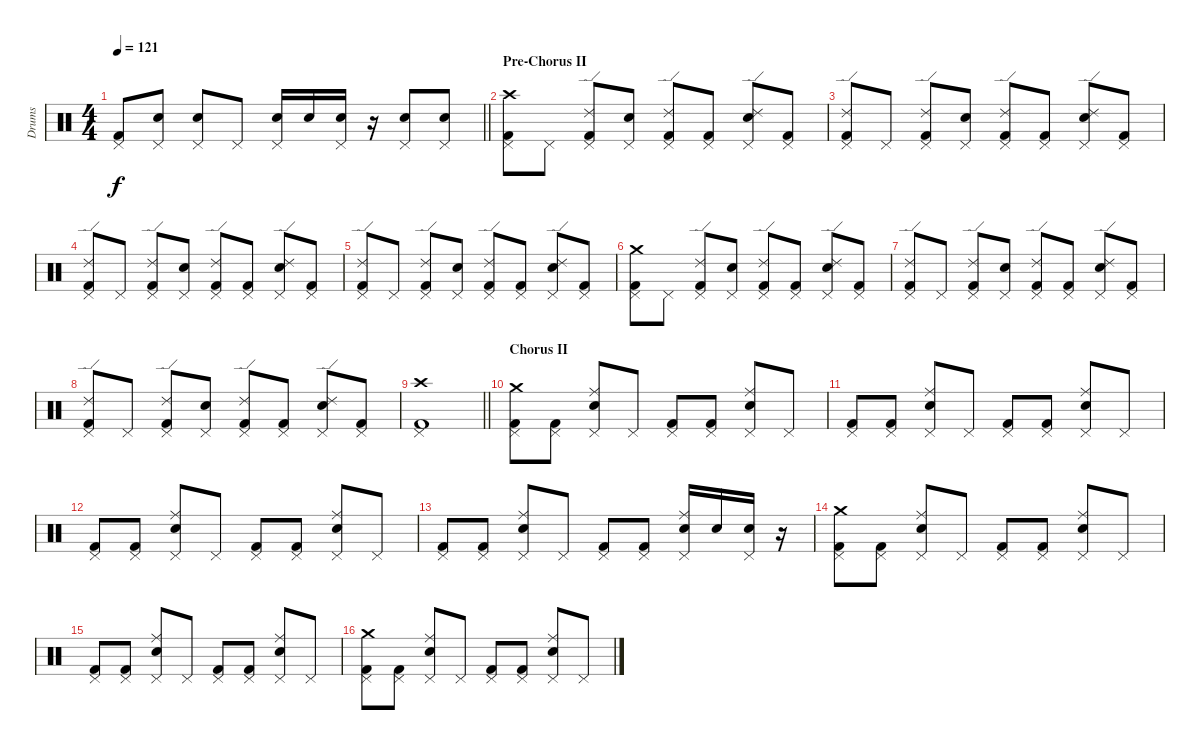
\track ("Drums" "Drums") {instrument percussion}
\staff {score}
\articulation defaults
\ts (4 4)
\tempo 121
\clef neutral
\barLineRight lightlight
\ks c
("Pedal Hi-Hat (hit)" "Kick (hit) 2").8{dy f} ("Pedal Hi-Hat (hit)" "Snare (hit) 2").8 ("Pedal Hi-Hat (hit)" "Snare (hit) 2").8 "Pedal Hi-Hat (hit)".8 ("Pedal Hi-Hat (hit)" "Snare (hit) 2").16 "Snare (hit) 2".16 ("Pedal Hi-Hat (hit)" "Snare (hit) 2").16 r.16 ("Pedal Hi-Hat (hit)" "Snare (hit) 2").8 ("Pedal Hi-Hat (hit)" "Snare (hit) 2").8 |
\section ("" "Pre-Chorus II")
("Pedal Hi-Hat (hit)" "Crash high (hit)" "Kick (hit) 2").8 "Pedal Hi-Hat (hit)".8 ("Pedal Hi-Hat (hit)" "Ride (edge) 2" "Kick (hit) 2").8 ("Pedal Hi-Hat (hit)" "Snare (hit) 2").8 ("Pedal Hi-Hat (hit)" "Ride (edge) 2" "Kick (hit) 2").8 ("Pedal Hi-Hat (hit)" "Kick (hit) 2").8 ("Pedal Hi-Hat (hit)" "Ride (edge) 2" "Snare (hit) 2").8 ("Pedal Hi-Hat (hit)" "Kick (hit) 2").8 |
("Pedal Hi-Hat (hit)" "Ride (edge) 2" "Kick (hit) 2").8 "Pedal Hi-Hat (hit)".8 ("Pedal Hi-Hat (hit)" "Ride (edge) 2" "Kick (hit) 2").8 ("Pedal Hi-Hat (hit)" "Snare (hit) 2").8 ("Pedal Hi-Hat (hit)" "Ride (edge) 2" "Kick (hit) 2").8 ("Pedal Hi-Hat (hit)" "Kick (hit) 2").8 ("Pedal Hi-Hat (hit)" "Ride (edge) 2" "Snare (hit) 2").8 ("Pedal Hi-Hat (hit)" "Kick (hit) 2").8 |
("Pedal Hi-Hat (hit)" "Ride (edge) 2" "Kick (hit) 2").8 "Pedal Hi-Hat (hit)".8 ("Pedal Hi-Hat (hit)" "Ride (edge) 2" "Kick (hit) 2").8 ("Pedal Hi-Hat (hit)" "Snare (hit) 2").8 ("Pedal Hi-Hat (hit)" "Ride (edge) 2" "Kick (hit) 2").8 ("Pedal Hi-Hat (hit)" "Kick (hit) 2").8 ("Pedal Hi-Hat (hit)" "Ride (edge) 2" "Snare (hit) 2").8 ("Pedal Hi-Hat (hit)" "Kick (hit) 2").8 |
("Pedal Hi-Hat (hit)" "Ride (edge) 2" "Kick (hit) 2").8 "Pedal Hi-Hat (hit)".8 ("Pedal Hi-Hat (hit)" "Ride (edge) 2" "Kick (hit) 2").8 ("Pedal Hi-Hat (hit)" "Snare (hit) 2").8 ("Pedal Hi-Hat (hit)" "Ride (edge) 2" "Kick (hit) 2").8 ("Pedal Hi-Hat (hit)" "Kick (hit) 2").8 ("Pedal Hi-Hat (hit)" "Ride (edge) 2" "Snare (hit) 2").8 ("Pedal Hi-Hat (hit)" "Kick (hit) 2").8 |
("Pedal Hi-Hat (hit)" "Crash medium (hit)" "Kick (hit) 2").8 "Pedal Hi-Hat (hit)".8 ("Pedal Hi-Hat (hit)" "Ride (edge) 2" "Kick (hit) 2").8 ("Pedal Hi-Hat (hit)" "Snare (hit) 2").8 ("Pedal Hi-Hat (hit)" "Ride (edge) 2" "Kick (hit) 2").8 ("Pedal Hi-Hat (hit)" "Kick (hit) 2").8 ("Pedal Hi-Hat (hit)" "Ride (edge) 2" "Snare (hit) 2").8 ("Pedal Hi-Hat (hit)" "Kick (hit) 2").8 |
("Pedal Hi-Hat (hit)" "Ride (edge) 2" "Kick (hit) 2").8 "Pedal Hi-Hat (hit)".8 ("Pedal Hi-Hat (hit)" "Ride (edge) 2" "Kick (hit) 2").8 ("Pedal Hi-Hat (hit)" "Snare (hit) 2").8 ("Pedal Hi-Hat (hit)" "Ride (edge) 2" "Kick (hit) 2").8 ("Pedal Hi-Hat (hit)" "Kick (hit) 2").8 ("Pedal Hi-Hat (hit)" "Ride (edge) 2" "Snare (hit) 2").8 ("Pedal Hi-Hat (hit)" "Kick (hit) 2").8 |
("Pedal Hi-Hat (hit)" "Ride (edge) 2" "Kick (hit) 2").8 "Pedal Hi-Hat (hit)".8 ("Pedal Hi-Hat (hit)" "Ride (edge) 2" "Kick (hit) 2").8 ("Pedal Hi-Hat (hit)" "Snare (hit) 2").8 ("Pedal Hi-Hat (hit)" "Ride (edge) 2" "Kick (hit) 2").8 ("Pedal Hi-Hat (hit)" "Kick (hit) 2").8 ("Pedal Hi-Hat (hit)" "Ride (edge) 2" "Snare (hit) 2").8 ("Pedal Hi-Hat (hit)" "Kick (hit) 2").8 |
\barLineRight lightlight
("Pedal Hi-Hat (hit)" "Crash high (hit)" "Kick (hit) 2").1 |
\section ("" "Chorus II")
("Pedal Hi-Hat (hit)" "Crash medium (hit)" "Kick (hit) 2").8 ("Pedal Hi-Hat (hit)" "Kick (hit) 2").8 ("Pedal Hi-Hat (hit)" "Ride (middle)" "Snare (hit) 2").8 "Pedal Hi-Hat (hit)".8 ("Pedal Hi-Hat (hit)" "Kick (hit) 2").8 ("Pedal Hi-Hat (hit)" "Kick (hit) 2").8 ("Pedal Hi-Hat (hit)" "Ride (middle)" "Snare (hit) 2").8 "Pedal Hi-Hat (hit)".8 |
("Pedal Hi-Hat (hit)" "Kick (hit) 2").8 ("Pedal Hi-Hat (hit)" "Kick (hit) 2").8 ("Pedal Hi-Hat (hit)" "Ride (middle)" "Snare (hit) 2").8 "Pedal Hi-Hat (hit)".8 ("Pedal Hi-Hat (hit)" "Kick (hit) 2").8 ("Pedal Hi-Hat (hit)" "Kick (hit) 2").8 ("Pedal Hi-Hat (hit)" "Ride (middle)" "Snare (hit) 2").8 "Pedal Hi-Hat (hit)".8 |
("Pedal Hi-Hat (hit)" "Kick (hit) 2").8 ("Pedal Hi-Hat (hit)" "Kick (hit) 2").8 ("Pedal Hi-Hat (hit)" "Ride (middle)" "Snare (hit) 2").8 "Pedal Hi-Hat (hit)".8 ("Pedal Hi-Hat (hit)" "Kick (hit) 2").8 ("Pedal Hi-Hat (hit)" "Kick (hit) 2").8 ("Pedal Hi-Hat (hit)" "Ride (middle)" "Snare (hit) 2").8 "Pedal Hi-Hat (hit)".8 |
("Pedal Hi-Hat (hit)" "Kick (hit) 2").8 ("Pedal Hi-Hat (hit)" "Kick (hit) 2").8 ("Pedal Hi-Hat (hit)" "Ride (middle)" "Snare (hit) 2").8 "Pedal Hi-Hat (hit)".8 ("Pedal Hi-Hat (hit)" "Kick (hit) 2").8 ("Pedal Hi-Hat (hit)" "Kick (hit) 2").8 ("Pedal Hi-Hat (hit)" "Ride (middle)" "Snare (hit) 2").16 "Snare (hit) 2".16 ("Pedal Hi-Hat (hit)" "Snare (hit) 2").16 r.16 |
("Pedal Hi-Hat (hit)" "Crash medium (hit)" "Kick (hit) 2").8 ("Pedal Hi-Hat (hit)" "Kick (hit) 2").8 ("Pedal Hi-Hat (hit)" "Ride (middle)" "Snare (hit) 2").8 "Pedal Hi-Hat (hit)".8 ("Pedal Hi-Hat (hit)" "Kick (hit) 2").8 ("Pedal Hi-Hat (hit)" "Kick (hit) 2").8 ("Pedal Hi-Hat (hit)" "Ride (middle)" "Snare (hit) 2").8 "Pedal Hi-Hat (hit)".8 |
("Pedal Hi-Hat (hit)" "Kick (hit) 2").8 ("Pedal Hi-Hat (hit)" "Kick (hit) 2").8 ("Pedal Hi-Hat (hit)" "Ride (middle)" "Snare (hit) 2").8 "Pedal Hi-Hat (hit)".8 ("Pedal Hi-Hat (hit)" "Kick (hit) 2").8 ("Pedal Hi-Hat (hit)" "Kick (hit) 2").8 ("Pedal Hi-Hat (hit)" "Ride (middle)" "Snare (hit) 2").8 "Pedal Hi-Hat (hit)".8 |
("Pedal Hi-Hat (hit)" "Crash medium (hit)" "Kick (hit) 2").8 ("Pedal Hi-Hat (hit)" "Kick (hit) 2").8 ("Pedal Hi-Hat (hit)" "Ride (middle)" "Snare (hit) 2").8 "Pedal Hi-Hat (hit)".8 ("Pedal Hi-Hat (hit)" "Kick (hit) 2").8 ("Pedal Hi-Hat (hit)" "Kick (hit) 2").8 ("Pedal Hi-Hat (hit)" "Ride (middle)" "Snare (hit) 2").8 "Pedal Hi-Hat (hit)".8
